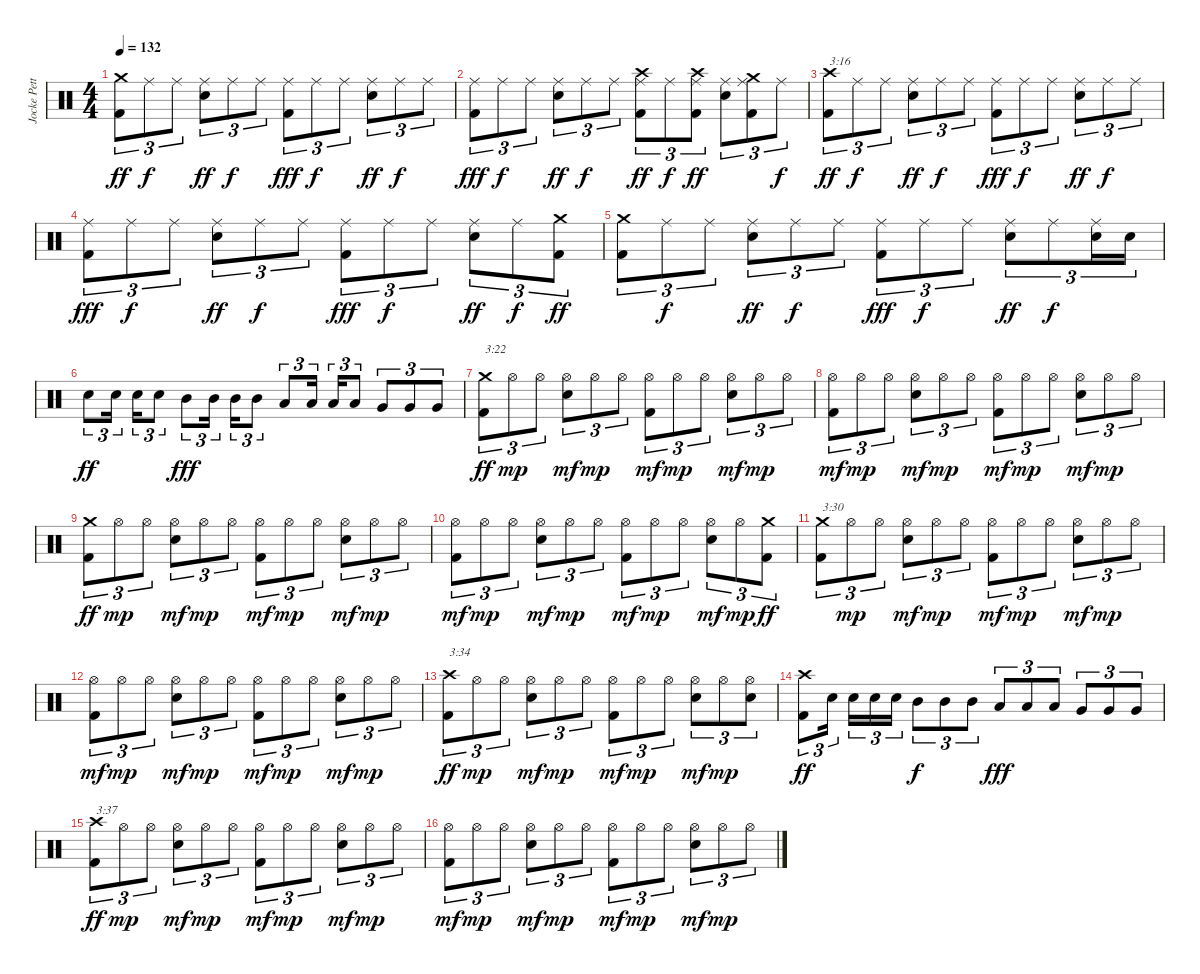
\track ("Jocke Pettersson" "Jocke Pett") {instrument percussion}
\staff {score}
\articulation defaults
\ts (4 4)
\tempo 132
\clef neutral
\ks c
("Kick (hit) 2" "Crash medium (hit)").8{tu (3 2) dy ff} "Ride (middle)".8{tu (3 2) dy f} "Ride (middle)".8{tu (3 2)} ("Electric Snare (hit)" "Ride (middle)").8{tu (3 2) dy ff} "Ride (middle)".8{tu (3 2) dy f} "Ride (middle)".8{tu (3 2)} ("Kick (hit) 2" "Ride (middle)").8{tu (3 2) dy fff} "Ride (middle)".8{tu (3 2) dy f} "Ride (middle)".8{tu (3 2)} ("Electric Snare (hit)" "Ride (middle)").8{tu (3 2) dy ff} "Ride (middle)".8{tu (3 2) dy f} "Ride (middle)".8{tu (3 2)} |
("Kick (hit) 2" "Ride (middle)").8{tu (3 2) dy fff} "Ride (middle)".8{tu (3 2) dy f} "Ride (middle)".8{tu (3 2)} ("Electric Snare (hit)" "Ride (middle)").8{tu (3 2) dy ff} "Ride (middle)".8{tu (3 2) dy f} "Ride (middle)".8{tu (3 2)} ("Kick (hit) 2" "Ride (middle)" "Crash high (hit)").8{tu (3 2) dy ff} "Ride (middle)".8{tu (3 2) dy f} ("Kick (hit) 2" "Ride (middle)" "Crash high (hit)").8{tu (3 2) dy ff} ("Electric Snare (hit)" "Ride (middle)").8{tu (3 2)} ("Kick (hit) 2" "Ride (middle)" "Crash medium (hit)").8{tu (3 2)} "Ride (middle)".8{tu (3 2) dy f} |
("Kick (hit) 2" "Crash high (hit)").8{tu (3 2) txt "3:16" dy ff} "Ride (middle)".8{tu (3 2) dy f} "Ride (middle)".8{tu (3 2)} ("Electric Snare (hit)" "Ride (middle)").8{tu (3 2) dy ff} "Ride (middle)".8{tu (3 2) dy f} "Ride (middle)".8{tu (3 2)} ("Kick (hit) 2" "Ride (middle)").8{tu (3 2) dy fff} "Ride (middle)".8{tu (3 2) dy f} "Ride (middle)".8{tu (3 2)} ("Electric Snare (hit)" "Ride (middle)").8{tu (3 2) dy ff} "Ride (middle)".8{tu (3 2) dy f} "Ride (middle)".8{tu (3 2)} |
("Kick (hit) 2" "Ride (middle)").8{tu (3 2) dy fff} "Ride (middle)".8{tu (3 2) dy f} "Ride (middle)".8{tu (3 2)} ("Electric Snare (hit)" "Ride (middle)").8{tu (3 2) dy ff} "Ride (middle)".8{tu (3 2) dy f} "Ride (middle)".8{tu (3 2)} ("Kick (hit) 2" "Ride (middle)").8{tu (3 2) dy fff} "Ride (middle)".8{tu (3 2) dy f} "Ride (middle)".8{tu (3 2)} ("Electric Snare (hit)" "Ride (middle)").8{tu (3 2) dy ff} "Ride (middle)".8{tu (3 2) dy f} ("Kick (hit) 2" "Crash medium (hit)").8{tu (3 2) dy ff} |
("Kick (hit) 2" "Crash medium (hit)").8{tu (3 2)} "Ride (middle)".8{tu (3 2) dy f} "Ride (middle)".8{tu (3 2)} ("Electric Snare (hit)" "Ride (middle)").8{tu (3 2) dy ff} "Ride (middle)".8{tu (3 2) dy f} "Ride (middle)".8{tu (3 2)} ("Kick (hit) 2" "Ride (middle)").8{tu (3 2) dy fff} "Ride (middle)".8{tu (3 2) dy f} "Ride (middle)".8{tu (3 2)} ("Electric Snare (hit)" "Ride (middle)").8{tu (3 2) dy ff} "Ride (middle)".8{tu (3 2) dy f} ("Electric Snare (hit)" "Ride (middle)").16{tu (3 2)} "Electric Snare (hit)".16{tu (3 2)} |
"Electric Snare (hit)".8{tu (3 2) dy ff} "Electric Snare (hit)".16{tu (3 2) beam splitsecondary} "Electric Snare (hit)".16{tu (3 2)} "Electric Snare (hit)".8{tu (3 2)} "Mid Tom (hit)".8{tu (3 2) dy fff} "Mid Tom (hit)".16{tu (3 2) beam splitsecondary} "Mid Tom (hit)".16{tu (3 2)} "Mid Tom (hit)".8{tu (3 2)} "Low Tom (hit)".8{tu (3 2)} "Low Tom (hit)".16{tu (3 2) beam splitsecondary} "Low Tom (hit)".16{tu (3 2)} "Low Tom (hit)".8{tu (3 2)} "Very Low Tom (hit)".8{tu (3 2)} "Very Low Tom (hit)".8{tu (3 2)} "Very Low Tom (hit)".8{tu (3 2)} |
("Kick (hit) 2" "Crash medium (hit)").8{tu (3 2) txt "3:22" dy ff} "Hi-Hat (open)".8{tu (3 2) dy mp} "Hi-Hat (open)".8{tu (3 2)} ("Electric Snare (hit)" "Hi-Hat (open)").8{tu (3 2) dy mf} "Hi-Hat (open)".8{tu (3 2) dy mp} "Hi-Hat (open)".8{tu (3 2)} ("Kick (hit) 2" "Hi-Hat (open)").8{tu (3 2) dy mf} "Hi-Hat (open)".8{tu (3 2) dy mp} "Hi-Hat (open)".8{tu (3 2)} ("Electric Snare (hit)" "Hi-Hat (open)").8{tu (3 2) dy mf} "Hi-Hat (open)".8{tu (3 2) dy mp} "Hi-Hat (open)".8{tu (3 2)} |
("Kick (hit) 2" "Hi-Hat (open)").8{tu (3 2) dy mf} "Hi-Hat (open)".8{tu (3 2) dy mp} "Hi-Hat (open)".8{tu (3 2)} ("Electric Snare (hit)" "Hi-Hat (open)").8{tu (3 2) dy mf} "Hi-Hat (open)".8{tu (3 2) dy mp} "Hi-Hat (open)".8{tu (3 2)} ("Kick (hit) 2" "Hi-Hat (open)").8{tu (3 2) dy mf} "Hi-Hat (open)".8{tu (3 2) dy mp} "Hi-Hat (open)".8{tu (3 2)} ("Electric Snare (hit)" "Hi-Hat (open)").8{tu (3 2) dy mf} "Hi-Hat (open)".8{tu (3 2) dy mp} "Hi-Hat (open)".8{tu (3 2)} |
("Kick (hit) 2" "Crash medium (hit)").8{tu (3 2) dy ff} "Hi-Hat (open)".8{tu (3 2) dy mp} "Hi-Hat (open)".8{tu (3 2)} ("Electric Snare (hit)" "Hi-Hat (open)").8{tu (3 2) dy mf} "Hi-Hat (open)".8{tu (3 2) dy mp} "Hi-Hat (open)".8{tu (3 2)} ("Kick (hit) 2" "Hi-Hat (open)").8{tu (3 2) dy mf} "Hi-Hat (open)".8{tu (3 2) dy mp} "Hi-Hat (open)".8{tu (3 2)} ("Electric Snare (hit)" "Hi-Hat (open)").8{tu (3 2) dy mf} "Hi-Hat (open)".8{tu (3 2) dy mp} "Hi-Hat (open)".8{tu (3 2)} |
("Kick (hit) 2" "Hi-Hat (open)").8{tu (3 2) dy mf} "Hi-Hat (open)".8{tu (3 2) dy mp} "Hi-Hat (open)".8{tu (3 2)} ("Electric Snare (hit)" "Hi-Hat (open)").8{tu (3 2) dy mf} "Hi-Hat (open)".8{tu (3 2) dy mp} "Hi-Hat (open)".8{tu (3 2)} ("Kick (hit) 2" "Hi-Hat (open)").8{tu (3 2) dy mf} "Hi-Hat (open)".8{tu (3 2) dy mp} "Hi-Hat (open)".8{tu (3 2)} ("Electric Snare (hit)" "Hi-Hat (open)").8{tu (3 2) dy mf} "Hi-Hat (open)".8{tu (3 2) dy mp} ("Kick (hit) 2" "Crash medium (hit)").8{tu (3 2) dy ff} |
("Kick (hit) 2" "Crash medium (hit)").8{tu (3 2) txt "3:30"} "Hi-Hat (open)".8{tu (3 2) dy mp} "Hi-Hat (open)".8{tu (3 2)} ("Electric Snare (hit)" "Hi-Hat (open)").8{tu (3 2) dy mf} "Hi-Hat (open)".8{tu (3 2) dy mp} "Hi-Hat (open)".8{tu (3 2)} ("Kick (hit) 2" "Hi-Hat (open)").8{tu (3 2) dy mf} "Hi-Hat (open)".8{tu (3 2) dy mp} "Hi-Hat (open)".8{tu (3 2)} ("Electric Snare (hit)" "Hi-Hat (open)").8{tu (3 2) dy mf} "Hi-Hat (open)".8{tu (3 2) dy mp} "Hi-Hat (open)".8{tu (3 2)} |
("Kick (hit) 2" "Hi-Hat (open)").8{tu (3 2) dy mf} "Hi-Hat (open)".8{tu (3 2) dy mp} "Hi-Hat (open)".8{tu (3 2)} ("Electric Snare (hit)" "Hi-Hat (open)").8{tu (3 2) dy mf} "Hi-Hat (open)".8{tu (3 2) dy mp} "Hi-Hat (open)".8{tu (3 2)} ("Kick (hit) 2" "Hi-Hat (open)").8{tu (3 2) dy mf} "Hi-Hat (open)".8{tu (3 2) dy mp} "Hi-Hat (open)".8{tu (3 2)} ("Electric Snare (hit)" "Hi-Hat (open)").8{tu (3 2) dy mf} "Hi-Hat (open)".8{tu (3 2) dy mp} "Hi-Hat (open)".8{tu (3 2)} |
("Kick (hit) 2" "Crash high (hit)").8{tu (3 2) txt "3:34" dy ff} "Hi-Hat (open)".8{tu (3 2) dy mp} "Hi-Hat (open)".8{tu (3 2)} ("Electric Snare (hit)" "Hi-Hat (open)").8{tu (3 2) dy mf} "Hi-Hat (open)".8{tu (3 2) dy mp} "Hi-Hat (open)".8{tu (3 2)} ("Kick (hit) 2" "Hi-Hat (open)").8{tu (3 2) dy mf} "Hi-Hat (open)".8{tu (3 2) dy mp} "Hi-Hat (open)".8{tu (3 2)} ("Electric Snare (hit)" "Hi-Hat (open)").8{tu (3 2) dy mf} "Hi-Hat (open)".8{tu (3 2) dy mp} ("Electric Snare (hit)" "Hi-Hat (open)").8{tu (3 2)} |
("Kick (hit) 2" "Crash high (hit)").8{tu (3 2) dy ff} "Electric Snare (hit)".16{tu (3 2) beam splitsecondary} "Electric Snare (hit)".16{tu (3 2)} "Electric Snare (hit)".16{tu (3 2)} "Electric Snare (hit)".16{tu (3 2)} "Mid Tom (hit)".8{tu (3 2) dy f} "Mid Tom (hit)".8{tu (3 2)} "Mid Tom (hit)".8{tu (3 2)} "Low Tom (hit)".8{tu (3 2) dy fff} "Low Tom (hit)".8{tu (3 2)} "Low Tom (hit)".8{tu (3 2)} "Very Low Tom (hit)".8{tu (3 2)} "Very Low Tom (hit)".8{tu (3 2)} "Very Low Tom (hit)".8{tu (3 2)} |
("Kick (hit) 2" "Crash high (hit)").8{tu (3 2) txt "3:37" dy ff} "Hi-Hat (open)".8{tu (3 2) dy mp} "Hi-Hat (open)".8{tu (3 2)} ("Electric Snare (hit)" "Hi-Hat (open)").8{tu (3 2) dy mf} "Hi-Hat (open)".8{tu (3 2) dy mp} "Hi-Hat (open)".8{tu (3 2)} ("Kick (hit) 2" "Hi-Hat (open)").8{tu (3 2) dy mf} "Hi-Hat (open)".8{tu (3 2) dy mp} "Hi-Hat (open)".8{tu (3 2)} ("Electric Snare (hit)" "Hi-Hat (open)").8{tu (3 2) dy mf} "Hi-Hat (open)".8{tu (3 2) dy mp} "Hi-Hat (open)".8{tu (3 2)} |
("Kick (hit) 2" "Hi-Hat (open)").8{tu (3 2) dy mf} "Hi-Hat (open)".8{tu (3 2) dy mp} "Hi-Hat (open)".8{tu (3 2)} ("Electric Snare (hit)" "Hi-Hat (open)").8{tu (3 2) dy mf} "Hi-Hat (open)".8{tu (3 2) dy mp} "Hi-Hat (open)".8{tu (3 2)} ("Kick (hit) 2" "Hi-Hat (open)").8{tu (3 2) dy mf} "Hi-Hat (open)".8{tu (3 2) dy mp} "Hi-Hat (open)".8{tu (3 2)} ("Electric Snare (hit)" "Hi-Hat (open)").8{tu (3 2) dy mf} "Hi-Hat (open)".8{tu (3 2) dy mp} "Hi-Hat (open)".8{tu (3 2)}
